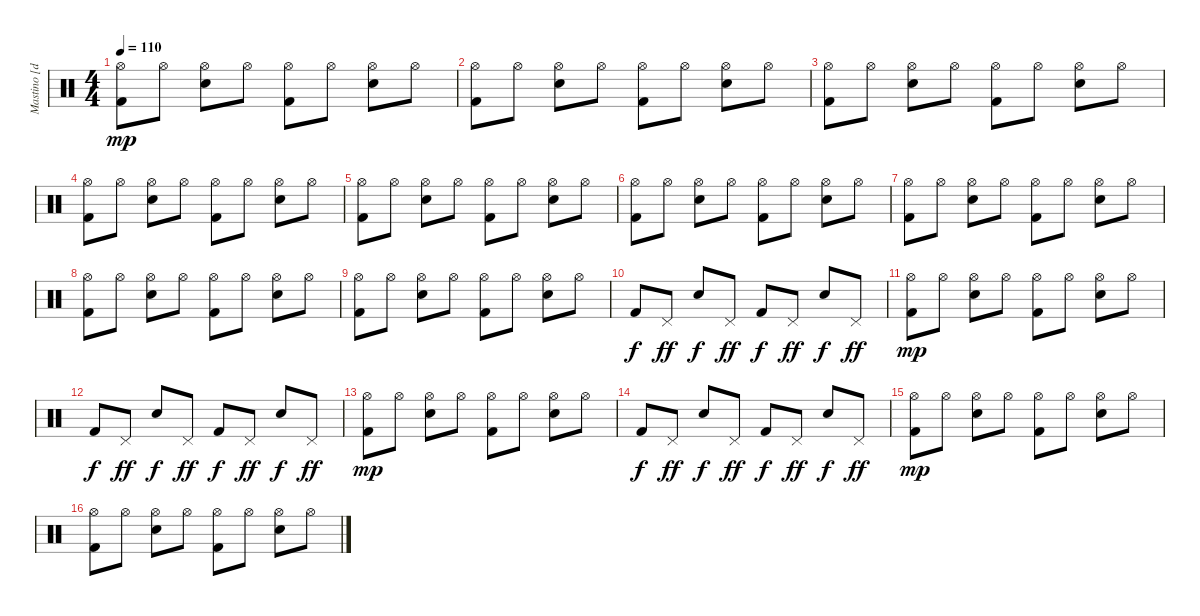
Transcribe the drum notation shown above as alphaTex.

\track ("Mastino [drums]" "Mastino [d") {instrument percussion}
\staff {score}
\articulation defaults
\ts (4 4)
\tempo 110
\clef neutral
\ks c
("Hi-Hat (open)" "Kick (hit) 2").8{dy mp} "Hi-Hat (open)".8 ("Hi-Hat (open)" "Electric Snare (hit)").8 "Hi-Hat (open)".8 ("Hi-Hat (open)" "Kick (hit) 2").8 "Hi-Hat (open)".8 ("Hi-Hat (open)" "Electric Snare (hit)").8 "Hi-Hat (open)".8 |
("Hi-Hat (open)" "Kick (hit) 2").8 "Hi-Hat (open)".8 ("Hi-Hat (open)" "Electric Snare (hit)").8 "Hi-Hat (open)".8 ("Hi-Hat (open)" "Kick (hit) 2").8 "Hi-Hat (open)".8 ("Hi-Hat (open)" "Electric Snare (hit)").8 "Hi-Hat (open)".8 |
("Hi-Hat (open)" "Kick (hit) 2").8 "Hi-Hat (open)".8 ("Hi-Hat (open)" "Electric Snare (hit)").8 "Hi-Hat (open)".8 ("Hi-Hat (open)" "Kick (hit) 2").8 "Hi-Hat (open)".8 ("Hi-Hat (open)" "Electric Snare (hit)").8 "Hi-Hat (open)".8 |
("Hi-Hat (open)" "Kick (hit) 2").8 "Hi-Hat (open)".8 ("Hi-Hat (open)" "Electric Snare (hit)").8 "Hi-Hat (open)".8 ("Hi-Hat (open)" "Kick (hit) 2").8 "Hi-Hat (open)".8 ("Hi-Hat (open)" "Electric Snare (hit)").8 "Hi-Hat (open)".8 |
("Hi-Hat (open)" "Kick (hit) 2").8 "Hi-Hat (open)".8 ("Hi-Hat (open)" "Electric Snare (hit)").8 "Hi-Hat (open)".8 ("Hi-Hat (open)" "Kick (hit) 2").8 "Hi-Hat (open)".8 ("Hi-Hat (open)" "Electric Snare (hit)").8 "Hi-Hat (open)".8 |
("Hi-Hat (open)" "Kick (hit) 2").8 "Hi-Hat (open)".8 ("Hi-Hat (open)" "Electric Snare (hit)").8 "Hi-Hat (open)".8 ("Hi-Hat (open)" "Kick (hit) 2").8 "Hi-Hat (open)".8 ("Hi-Hat (open)" "Electric Snare (hit)").8 "Hi-Hat (open)".8 |
("Hi-Hat (open)" "Kick (hit) 2").8 "Hi-Hat (open)".8 ("Hi-Hat (open)" "Electric Snare (hit)").8 "Hi-Hat (open)".8 ("Hi-Hat (open)" "Kick (hit) 2").8 "Hi-Hat (open)".8 ("Hi-Hat (open)" "Electric Snare (hit)").8 "Hi-Hat (open)".8 |
("Hi-Hat (open)" "Kick (hit) 2").8 "Hi-Hat (open)".8 ("Hi-Hat (open)" "Electric Snare (hit)").8 "Hi-Hat (open)".8 ("Hi-Hat (open)" "Kick (hit) 2").8 "Hi-Hat (open)".8 ("Hi-Hat (open)" "Electric Snare (hit)").8 "Hi-Hat (open)".8 |
("Hi-Hat (open)" "Kick (hit) 2").8 "Hi-Hat (open)".8 ("Hi-Hat (open)" "Electric Snare (hit)").8 "Hi-Hat (open)".8 ("Hi-Hat (open)" "Kick (hit) 2").8 "Hi-Hat (open)".8 ("Hi-Hat (open)" "Electric Snare (hit)").8 "Hi-Hat (open)".8 |
"Kick (hit) 2".8{dy f} "Pedal Hi-Hat (hit)".8{dy ff} "Electric Snare (hit)".8{dy f} "Pedal Hi-Hat (hit)".8{dy ff} "Kick (hit) 2".8{dy f} "Pedal Hi-Hat (hit)".8{dy ff} "Electric Snare (hit)".8{dy f} "Pedal Hi-Hat (hit)".8{dy ff} |
("Hi-Hat (open)" "Kick (hit) 2").8{dy mp} "Hi-Hat (open)".8 ("Hi-Hat (open)" "Electric Snare (hit)").8 "Hi-Hat (open)".8 ("Hi-Hat (open)" "Kick (hit) 2").8 "Hi-Hat (open)".8 ("Hi-Hat (open)" "Electric Snare (hit)").8 "Hi-Hat (open)".8 |
"Kick (hit) 2".8{dy f} "Pedal Hi-Hat (hit)".8{dy ff} "Electric Snare (hit)".8{dy f} "Pedal Hi-Hat (hit)".8{dy ff} "Kick (hit) 2".8{dy f} "Pedal Hi-Hat (hit)".8{dy ff} "Electric Snare (hit)".8{dy f} "Pedal Hi-Hat (hit)".8{dy ff} |
("Hi-Hat (open)" "Kick (hit) 2").8{dy mp} "Hi-Hat (open)".8 ("Hi-Hat (open)" "Electric Snare (hit)").8 "Hi-Hat (open)".8 ("Hi-Hat (open)" "Kick (hit) 2").8 "Hi-Hat (open)".8 ("Hi-Hat (open)" "Electric Snare (hit)").8 "Hi-Hat (open)".8 |
"Kick (hit) 2".8{dy f} "Pedal Hi-Hat (hit)".8{dy ff} "Electric Snare (hit)".8{dy f} "Pedal Hi-Hat (hit)".8{dy ff} "Kick (hit) 2".8{dy f} "Pedal Hi-Hat (hit)".8{dy ff} "Electric Snare (hit)".8{dy f} "Pedal Hi-Hat (hit)".8{dy ff} |
("Hi-Hat (open)" "Kick (hit) 2").8{dy mp} "Hi-Hat (open)".8 ("Hi-Hat (open)" "Electric Snare (hit)").8 "Hi-Hat (open)".8 ("Hi-Hat (open)" "Kick (hit) 2").8 "Hi-Hat (open)".8 ("Hi-Hat (open)" "Electric Snare (hit)").8 "Hi-Hat (open)".8 |
("Hi-Hat (open)" "Kick (hit) 2").8 "Hi-Hat (open)".8 ("Hi-Hat (open)" "Electric Snare (hit)").8 "Hi-Hat (open)".8 ("Hi-Hat (open)" "Kick (hit) 2").8 "Hi-Hat (open)".8 ("Hi-Hat (open)" "Electric Snare (hit)").8 "Hi-Hat (open)".8
